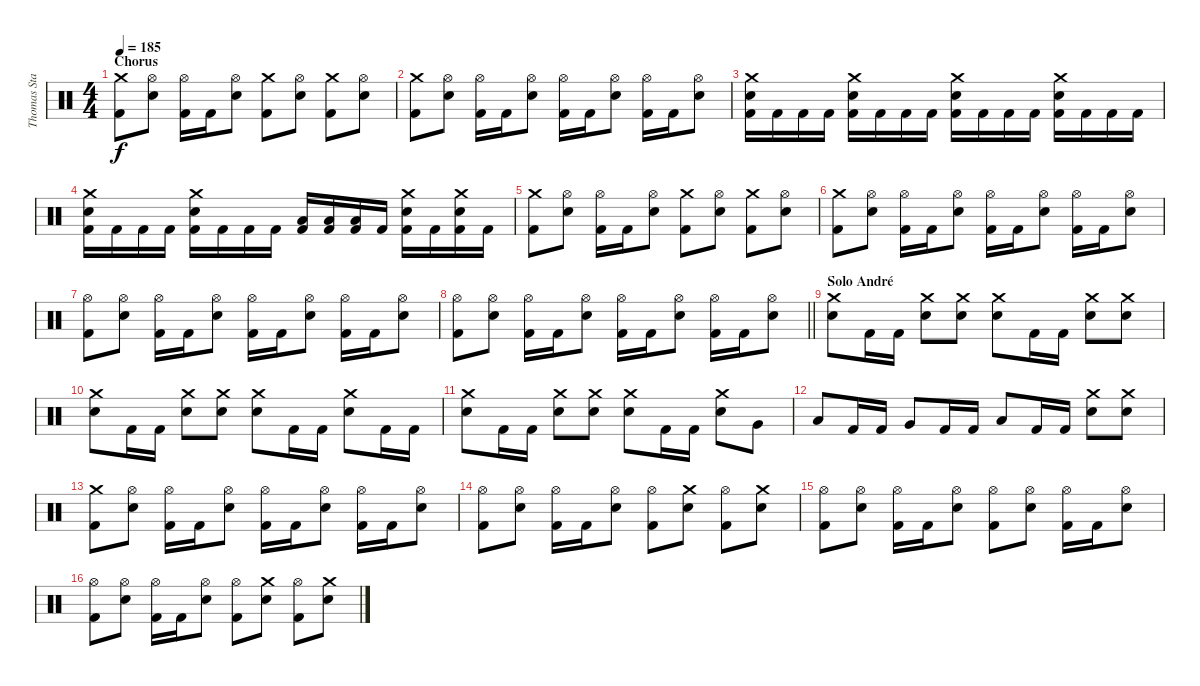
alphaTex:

\track ("Thomas Stauch" "Thomas Sta") {instrument percussion}
\staff {score}
\articulation defaults
\ts (4 4)
\section ("" "Chorus")
\tempo 185
\clef neutral
\ks c
("Crash medium (hit)" "Kick (hit) 2").8{dy f} ("Hi-Hat (open)" "Electric Snare (hit)").8 ("Hi-Hat (open)" "Kick (hit) 2").16 "Kick (hit) 2".16 ("Hi-Hat (open)" "Electric Snare (hit)").8 ("Crash medium (hit)" "Kick (hit) 2").8 ("Hi-Hat (open)" "Electric Snare (hit)").8 ("Crash medium (hit)" "Kick (hit) 2").8 ("Hi-Hat (open)" "Electric Snare (hit)").8 |
("Crash medium (hit)" "Kick (hit) 2").8 ("Hi-Hat (open)" "Electric Snare (hit)").8 ("Hi-Hat (open)" "Kick (hit) 2").16 "Kick (hit) 2".16 ("Hi-Hat (open)" "Electric Snare (hit)").8 ("Hi-Hat (open)" "Kick (hit) 2").16 "Kick (hit) 2".16 ("Hi-Hat (open)" "Electric Snare (hit)").8 ("Hi-Hat (open)" "Kick (hit) 2").16 "Kick (hit) 2".16 ("Hi-Hat (open)" "Electric Snare (hit)").8 |
("Crash medium (hit)" "Electric Snare (hit)" "Kick (hit) 2").16 "Kick (hit) 2".16 "Kick (hit) 2".16 "Kick (hit) 2".16 ("Crash medium (hit)" "Electric Snare (hit)" "Kick (hit) 2").16 "Kick (hit) 2".16 "Kick (hit) 2".16 "Kick (hit) 2".16 ("Crash medium (hit)" "Electric Snare (hit)" "Kick (hit) 2").16 "Kick (hit) 2".16 "Kick (hit) 2".16 "Kick (hit) 2".16 ("Crash medium (hit)" "Electric Snare (hit)" "Kick (hit) 2").16 "Kick (hit) 2".16 "Kick (hit) 2".16 "Kick (hit) 2".16 |
("Crash medium (hit)" "Electric Snare (hit)" "Kick (hit) 2").16 "Kick (hit) 2".16 "Kick (hit) 2".16 "Kick (hit) 2".16 ("Crash medium (hit)" "Electric Snare (hit)" "Kick (hit) 2").16 "Kick (hit) 2".16 "Kick (hit) 2".16 "Kick (hit) 2".16 ("Low Tom (hit)" "Kick (hit) 2").16 ("Low Tom (hit)" "Kick (hit) 2").16 ("Low Tom (hit)" "Kick (hit) 2").16 "Kick (hit) 2".16 ("Crash medium (hit)" "Electric Snare (hit)" "Kick (hit) 2").16 "Kick (hit) 2".16 ("Crash medium (hit)" "Electric Snare (hit)" "Kick (hit) 2").16 "Kick (hit) 2".16 |
("Crash medium (hit)" "Kick (hit) 2").8 ("Hi-Hat (open)" "Electric Snare (hit)").8 ("Hi-Hat (open)" "Kick (hit) 2").16 "Kick (hit) 2".16 ("Hi-Hat (open)" "Electric Snare (hit)").8 ("Crash medium (hit)" "Kick (hit) 2").8 ("Hi-Hat (open)" "Electric Snare (hit)").8 ("Crash medium (hit)" "Kick (hit) 2").8 ("Hi-Hat (open)" "Electric Snare (hit)").8 |
("Crash medium (hit)" "Kick (hit) 2").8 ("Hi-Hat (open)" "Electric Snare (hit)").8 ("Hi-Hat (open)" "Kick (hit) 2").16 "Kick (hit) 2".16 ("Hi-Hat (open)" "Electric Snare (hit)").8 ("Hi-Hat (open)" "Kick (hit) 2").16 "Kick (hit) 2".16 ("Hi-Hat (open)" "Electric Snare (hit)").8 ("Hi-Hat (open)" "Kick (hit) 2").16 "Kick (hit) 2".16 ("Hi-Hat (open)" "Electric Snare (hit)").8 |
("Hi-Hat (open)" "Kick (hit) 2").8 ("Hi-Hat (open)" "Electric Snare (hit)").8 ("Hi-Hat (open)" "Kick (hit) 2").16 "Kick (hit) 2".16 ("Hi-Hat (open)" "Electric Snare (hit)").8 ("Hi-Hat (open)" "Kick (hit) 2").16 "Kick (hit) 2".16 ("Hi-Hat (open)" "Electric Snare (hit)").8 ("Hi-Hat (open)" "Kick (hit) 2").16 "Kick (hit) 2".16 ("Hi-Hat (open)" "Electric Snare (hit)").8 |
\barLineRight lightlight
("Hi-Hat (open)" "Kick (hit) 2").8 ("Hi-Hat (open)" "Electric Snare (hit)").8 ("Hi-Hat (open)" "Kick (hit) 2").16 "Kick (hit) 2".16 ("Hi-Hat (open)" "Electric Snare (hit)").8 ("Hi-Hat (open)" "Kick (hit) 2").16 "Kick (hit) 2".16 ("Hi-Hat (open)" "Electric Snare (hit)").8 ("Hi-Hat (open)" "Kick (hit) 2").16 "Kick (hit) 2".16 ("Hi-Hat (open)" "Electric Snare (hit)").8 |
\section ("" "Solo André")
("Crash medium (hit)" "Electric Snare (hit)").8 "Kick (hit) 2".16 "Kick (hit) 2".16 ("Crash medium (hit)" "Electric Snare (hit)").8 ("Crash medium (hit)" "Electric Snare (hit)").8 ("Crash medium (hit)" "Electric Snare (hit)").8 "Kick (hit) 2".16 "Kick (hit) 2".16 ("Crash medium (hit)" "Electric Snare (hit)").8 ("Crash medium (hit)" "Electric Snare (hit)").8 |
("Crash medium (hit)" "Electric Snare (hit)").8 "Kick (hit) 2".16 "Kick (hit) 2".16 ("Crash medium (hit)" "Electric Snare (hit)").8 ("Crash medium (hit)" "Electric Snare (hit)").8 ("Crash medium (hit)" "Electric Snare (hit)").8 "Kick (hit) 2".16 "Kick (hit) 2".16 ("Crash medium (hit)" "Electric Snare (hit)").8 "Kick (hit) 2".16 "Kick (hit) 2".16 |
("Crash medium (hit)" "Electric Snare (hit)").8 "Kick (hit) 2".16 "Kick (hit) 2".16 ("Crash medium (hit)" "Electric Snare (hit)").8 ("Crash medium (hit)" "Electric Snare (hit)").8 ("Crash medium (hit)" "Electric Snare (hit)").8 "Kick (hit) 2".16 "Kick (hit) 2".16 ("Crash medium (hit)" "Electric Snare (hit)").8 "Very Low Tom (hit)".8 |
"Low Tom (hit)".8 "Kick (hit) 2".16 "Kick (hit) 2".16 "Very Low Tom (hit)".8 "Kick (hit) 2".16 "Kick (hit) 2".16 "Low Floor Tom (hit)".8 "Kick (hit) 2".16 "Kick (hit) 2".16 ("Crash medium (hit)" "Electric Snare (hit)").8 ("Crash medium (hit)" "Electric Snare (hit)").8 |
("Crash medium (hit)" "Kick (hit) 2").8 ("Hi-Hat (open)" "Electric Snare (hit)").8 ("Hi-Hat (open)" "Kick (hit) 2").16 "Kick (hit) 2".16 ("Hi-Hat (open)" "Electric Snare (hit)").8 ("Hi-Hat (open)" "Kick (hit) 2").16 "Kick (hit) 2".16 ("Hi-Hat (open)" "Electric Snare (hit)").8 ("Hi-Hat (open)" "Kick (hit) 2").16 "Kick (hit) 2".16 ("Hi-Hat (open)" "Electric Snare (hit)").8 |
("Hi-Hat (open)" "Kick (hit) 2").8 ("Hi-Hat (open)" "Electric Snare (hit)").8 ("Hi-Hat (open)" "Kick (hit) 2").16 "Kick (hit) 2".16 ("Hi-Hat (open)" "Electric Snare (hit)").8 ("Hi-Hat (open)" "Kick (hit) 2").8 ("Crash medium (hit)" "Electric Snare (hit)").8 ("Hi-Hat (open)" "Kick (hit) 2").8 ("Crash medium (hit)" "Electric Snare (hit)").8 |
("Hi-Hat (open)" "Kick (hit) 2").8 ("Hi-Hat (open)" "Electric Snare (hit)").8 ("Hi-Hat (open)" "Kick (hit) 2").16 "Kick (hit) 2".16 ("Hi-Hat (open)" "Electric Snare (hit)").8 ("Hi-Hat (open)" "Kick (hit) 2").8 ("Hi-Hat (open)" "Electric Snare (hit)").8 ("Hi-Hat (open)" "Kick (hit) 2").16 "Kick (hit) 2".16 ("Hi-Hat (open)" "Electric Snare (hit)").8 |
("Hi-Hat (open)" "Kick (hit) 2").8 ("Hi-Hat (open)" "Electric Snare (hit)").8 ("Hi-Hat (open)" "Kick (hit) 2").16 "Kick (hit) 2".16 ("Hi-Hat (open)" "Electric Snare (hit)").8 ("Hi-Hat (open)" "Kick (hit) 2").8 ("Crash medium (hit)" "Electric Snare (hit)").8 ("Hi-Hat (open)" "Kick (hit) 2").8 ("Crash medium (hit)" "Electric Snare (hit)").8
